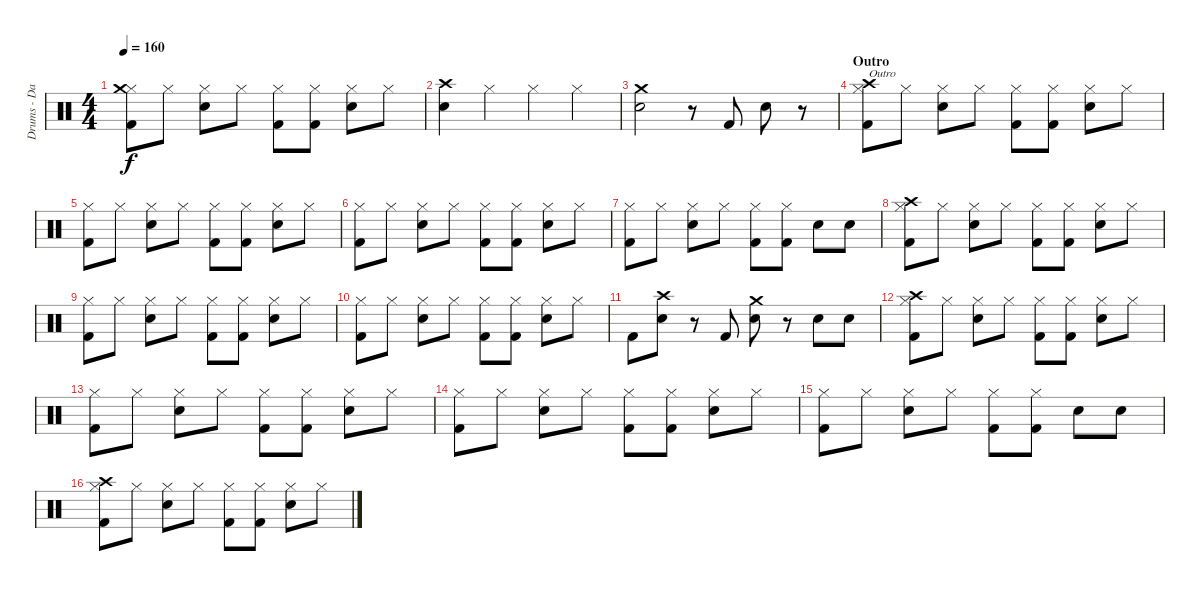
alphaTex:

\track ("Drums - Daniel Zimmermann" "Drums - Da") {instrument percussion}
\staff {score}
\articulation defaults
\ts (4 4)
\tempo 160
\clef neutral
\ks c
("Hi-Hat (closed)" "Kick (hit) 2" "Crash medium (hit)").8{dy f} "Hi-Hat (closed)".8 ("Hi-Hat (closed)" "Snare (hit) 2").8 "Hi-Hat (closed)".8 ("Hi-Hat (closed)" "Kick (hit) 2").8 ("Hi-Hat (closed)" "Kick (hit) 2").8 ("Hi-Hat (closed)" "Snare (hit) 2").8 "Hi-Hat (closed)".8 |
("Snare (hit) 2" "Crash high (hit)").4 "Hi-Hat (closed)".4 "Hi-Hat (closed)".4 "Hi-Hat (closed)".4 |
("Snare (hit) 2" "Crash medium (hit)").2 r.8 "Kick (hit) 2".8 "Snare (hit) 2".8 r.8 |
\section ("" "Outro")
("Hi-Hat (closed)" "Kick (hit) 2" "Crash high (hit)").8{txt "Outro"} "Hi-Hat (closed)".8 ("Hi-Hat (closed)" "Snare (hit) 2").8 "Hi-Hat (closed)".8 ("Hi-Hat (closed)" "Kick (hit) 2").8 ("Hi-Hat (closed)" "Kick (hit) 2").8 ("Hi-Hat (closed)" "Snare (hit) 2").8 "Hi-Hat (closed)".8 |
("Hi-Hat (closed)" "Kick (hit) 2").8 "Hi-Hat (closed)".8 ("Hi-Hat (closed)" "Snare (hit) 2").8 "Hi-Hat (closed)".8 ("Hi-Hat (closed)" "Kick (hit) 2").8 ("Hi-Hat (closed)" "Kick (hit) 2").8 ("Hi-Hat (closed)" "Snare (hit) 2").8 "Hi-Hat (closed)".8 |
("Hi-Hat (closed)" "Kick (hit) 2").8 "Hi-Hat (closed)".8 ("Hi-Hat (closed)" "Snare (hit) 2").8 "Hi-Hat (closed)".8 ("Hi-Hat (closed)" "Kick (hit) 2").8 ("Hi-Hat (closed)" "Kick (hit) 2").8 ("Hi-Hat (closed)" "Snare (hit) 2").8 "Hi-Hat (closed)".8 |
("Hi-Hat (closed)" "Kick (hit) 2").8 "Hi-Hat (closed)".8 ("Hi-Hat (closed)" "Snare (hit) 2").8 "Hi-Hat (closed)".8 ("Hi-Hat (closed)" "Kick (hit) 2").8 ("Hi-Hat (closed)" "Kick (hit) 2").8 "Snare (hit) 2".8 "Snare (hit) 2".8 |
("Hi-Hat (closed)" "Kick (hit) 2" "Crash high (hit)").8 "Hi-Hat (closed)".8 ("Hi-Hat (closed)" "Snare (hit) 2").8 "Hi-Hat (closed)".8 ("Hi-Hat (closed)" "Kick (hit) 2").8 ("Hi-Hat (closed)" "Kick (hit) 2").8 ("Hi-Hat (closed)" "Snare (hit) 2").8 "Hi-Hat (closed)".8 |
("Hi-Hat (closed)" "Kick (hit) 2").8 "Hi-Hat (closed)".8 ("Hi-Hat (closed)" "Snare (hit) 2").8 "Hi-Hat (closed)".8 ("Hi-Hat (closed)" "Kick (hit) 2").8 ("Hi-Hat (closed)" "Kick (hit) 2").8 ("Hi-Hat (closed)" "Snare (hit) 2").8 "Hi-Hat (closed)".8 |
("Hi-Hat (closed)" "Kick (hit) 2").8 "Hi-Hat (closed)".8 ("Hi-Hat (closed)" "Snare (hit) 2").8 "Hi-Hat (closed)".8 ("Hi-Hat (closed)" "Kick (hit) 2").8 ("Hi-Hat (closed)" "Kick (hit) 2").8 ("Hi-Hat (closed)" "Snare (hit) 2").8 "Hi-Hat (closed)".8 |
"Kick (hit) 2".8 ("Snare (hit) 2" "Crash high (hit)").8 r.8 "Kick (hit) 2".8 ("Snare (hit) 2" "Crash medium (hit)").8 r.8 "Snare (hit) 2".8 "Snare (hit) 2".8 |
("Hi-Hat (closed)" "Kick (hit) 2" "Crash high (hit)").8 "Hi-Hat (closed)".8 ("Hi-Hat (closed)" "Snare (hit) 2").8 "Hi-Hat (closed)".8 ("Hi-Hat (closed)" "Kick (hit) 2").8 ("Hi-Hat (closed)" "Kick (hit) 2").8 ("Hi-Hat (closed)" "Snare (hit) 2").8 "Hi-Hat (closed)".8 |
("Hi-Hat (closed)" "Kick (hit) 2").8 "Hi-Hat (closed)".8 ("Hi-Hat (closed)" "Snare (hit) 2").8 "Hi-Hat (closed)".8 ("Hi-Hat (closed)" "Kick (hit) 2").8 ("Hi-Hat (closed)" "Kick (hit) 2").8 ("Hi-Hat (closed)" "Snare (hit) 2").8 "Hi-Hat (closed)".8 |
("Hi-Hat (closed)" "Kick (hit) 2").8 "Hi-Hat (closed)".8 ("Hi-Hat (closed)" "Snare (hit) 2").8 "Hi-Hat (closed)".8 ("Hi-Hat (closed)" "Kick (hit) 2").8 ("Hi-Hat (closed)" "Kick (hit) 2").8 ("Hi-Hat (closed)" "Snare (hit) 2").8 "Hi-Hat (closed)".8 |
("Hi-Hat (closed)" "Kick (hit) 2").8 "Hi-Hat (closed)".8 ("Hi-Hat (closed)" "Snare (hit) 2").8 "Hi-Hat (closed)".8 ("Hi-Hat (closed)" "Kick (hit) 2").8 ("Hi-Hat (closed)" "Kick (hit) 2").8 "Snare (hit) 2".8 "Snare (hit) 2".8 |
("Hi-Hat (closed)" "Kick (hit) 2" "Crash high (hit)").8 "Hi-Hat (closed)".8 ("Hi-Hat (closed)" "Snare (hit) 2").8 "Hi-Hat (closed)".8 ("Hi-Hat (closed)" "Kick (hit) 2").8 ("Hi-Hat (closed)" "Kick (hit) 2").8 ("Hi-Hat (closed)" "Snare (hit) 2").8 "Hi-Hat (closed)".8
